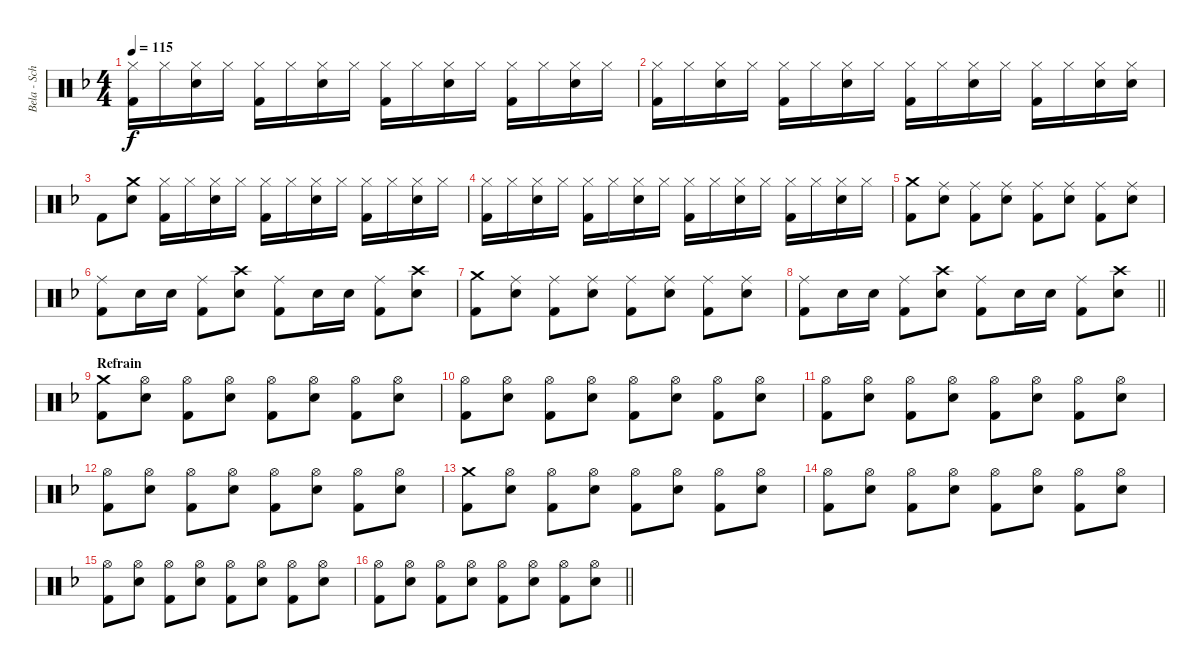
\track ("Bela - Schlagzeug" "Bela - Sch") {instrument percussion}
\staff {score}
\articulation defaults
\ts (4 4)
\tempo 115
\clef neutral
\ks f
("Hi-Hat (closed)" "Kick (hit) 2").16{dy f} "Hi-Hat (closed)".16 ("Hi-Hat (closed)" "Snare (hit) 2").16 "Hi-Hat (closed)".16 ("Hi-Hat (closed)" "Kick (hit) 2").16 "Hi-Hat (closed)".16 ("Hi-Hat (closed)" "Snare (hit) 2").16 "Hi-Hat (closed)".16 ("Hi-Hat (closed)" "Kick (hit) 2").16 "Hi-Hat (closed)".16 ("Hi-Hat (closed)" "Snare (hit) 2").16 "Hi-Hat (closed)".16 ("Hi-Hat (closed)" "Kick (hit) 2").16 "Hi-Hat (closed)".16 ("Hi-Hat (closed)" "Snare (hit) 2").16 "Hi-Hat (closed)".16 |
("Hi-Hat (closed)" "Kick (hit) 2").16 "Hi-Hat (closed)".16 ("Hi-Hat (closed)" "Snare (hit) 2").16 "Hi-Hat (closed)".16 ("Hi-Hat (closed)" "Kick (hit) 2").16 "Hi-Hat (closed)".16 ("Hi-Hat (closed)" "Snare (hit) 2").16 "Hi-Hat (closed)".16 ("Hi-Hat (closed)" "Kick (hit) 2").16 "Hi-Hat (closed)".16 ("Hi-Hat (closed)" "Snare (hit) 2").16 "Hi-Hat (closed)".16 ("Hi-Hat (closed)" "Kick (hit) 2").16 "Hi-Hat (closed)".16 ("Hi-Hat (closed)" "Snare (hit) 2").16 ("Hi-Hat (closed)" "Snare (hit) 2").16 |
"Kick (hit) 2".8 ("Crash medium (hit)" "Snare (hit) 2").8 ("Hi-Hat (closed)" "Kick (hit) 2").16 "Hi-Hat (closed)".16 ("Hi-Hat (closed)" "Snare (hit) 2").16 "Hi-Hat (closed)".16 ("Hi-Hat (closed)" "Kick (hit) 2").16 "Hi-Hat (closed)".16 ("Hi-Hat (closed)" "Snare (hit) 2").16 "Hi-Hat (closed)".16 ("Hi-Hat (closed)" "Kick (hit) 2").16 "Hi-Hat (closed)".16 ("Hi-Hat (closed)" "Snare (hit) 2").16 "Hi-Hat (closed)".16 |
("Hi-Hat (closed)" "Kick (hit) 2").16 "Hi-Hat (closed)".16 ("Hi-Hat (closed)" "Snare (hit) 2").16 "Hi-Hat (closed)".16 ("Hi-Hat (closed)" "Kick (hit) 2").16 "Hi-Hat (closed)".16 ("Hi-Hat (closed)" "Snare (hit) 2").16 "Hi-Hat (closed)".16 ("Hi-Hat (closed)" "Kick (hit) 2").16 "Hi-Hat (closed)".16 ("Hi-Hat (closed)" "Snare (hit) 2").16 "Hi-Hat (closed)".16 ("Hi-Hat (closed)" "Kick (hit) 2").16 "Hi-Hat (closed)".16 ("Hi-Hat (closed)" "Snare (hit) 2").16 "Hi-Hat (closed)".16 |
("Crash medium (hit)" "Kick (hit) 2").8 ("Ride (middle)" "Snare (hit) 2").8 ("Ride (middle)" "Kick (hit) 2").8 ("Ride (middle)" "Snare (hit) 2").8 ("Ride (middle)" "Kick (hit) 2").8 ("Ride (middle)" "Snare (hit) 2").8 ("Ride (middle)" "Kick (hit) 2").8 ("Ride (middle)" "Snare (hit) 2").8 |
("Ride (middle)" "Kick (hit) 2").8 "Snare (hit) 2".16 "Snare (hit) 2".16 ("Ride (middle)" "Kick (hit) 2").8 ("Crash high (hit)" "Snare (hit) 2").8 ("Ride (middle)" "Kick (hit) 2").8 "Snare (hit) 2".16 "Snare (hit) 2".16 ("Ride (middle)" "Kick (hit) 2").8 ("Crash high (hit)" "Snare (hit) 2").8 |
("Crash medium (hit)" "Kick (hit) 2").8 ("Ride (middle)" "Snare (hit) 2").8 ("Ride (middle)" "Kick (hit) 2").8 ("Ride (middle)" "Snare (hit) 2").8 ("Ride (middle)" "Kick (hit) 2").8 ("Ride (middle)" "Snare (hit) 2").8 ("Ride (middle)" "Kick (hit) 2").8 ("Ride (middle)" "Snare (hit) 2").8 |
\barLineRight lightlight
("Ride (middle)" "Kick (hit) 2").8 "Snare (hit) 2".16 "Snare (hit) 2".16 ("Ride (middle)" "Kick (hit) 2").8 ("Crash high (hit)" "Snare (hit) 2").8 ("Ride (middle)" "Kick (hit) 2").8 "Snare (hit) 2".16 "Snare (hit) 2".16 ("Ride (middle)" "Kick (hit) 2").8 ("Crash high (hit)" "Snare (hit) 2").8 |
\section ("" "Refrain")
("Crash medium (hit)" "Kick (hit) 2").8 ("Hi-Hat (open)" "Snare (hit) 2").8 ("Hi-Hat (open)" "Kick (hit) 2").8 ("Hi-Hat (open)" "Snare (hit) 2").8 ("Hi-Hat (open)" "Kick (hit) 2").8 ("Hi-Hat (open)" "Snare (hit) 2").8 ("Hi-Hat (open)" "Kick (hit) 2").8 ("Hi-Hat (open)" "Snare (hit) 2").8 |
("Hi-Hat (open)" "Kick (hit) 2").8 ("Hi-Hat (open)" "Snare (hit) 2").8 ("Hi-Hat (open)" "Kick (hit) 2").8 ("Hi-Hat (open)" "Snare (hit) 2").8 ("Hi-Hat (open)" "Kick (hit) 2").8 ("Hi-Hat (open)" "Snare (hit) 2").8 ("Hi-Hat (open)" "Kick (hit) 2").8 ("Hi-Hat (open)" "Snare (hit) 2").8 |
("Hi-Hat (open)" "Kick (hit) 2").8 ("Hi-Hat (open)" "Snare (hit) 2").8 ("Hi-Hat (open)" "Kick (hit) 2").8 ("Hi-Hat (open)" "Snare (hit) 2").8 ("Hi-Hat (open)" "Kick (hit) 2").8 ("Hi-Hat (open)" "Snare (hit) 2").8 ("Hi-Hat (open)" "Kick (hit) 2").8 ("Hi-Hat (open)" "Snare (hit) 2").8 |
("Hi-Hat (open)" "Kick (hit) 2").8 ("Hi-Hat (open)" "Snare (hit) 2").8 ("Hi-Hat (open)" "Kick (hit) 2").8 ("Hi-Hat (open)" "Snare (hit) 2").8 ("Hi-Hat (open)" "Kick (hit) 2").8 ("Hi-Hat (open)" "Snare (hit) 2").8 ("Hi-Hat (open)" "Kick (hit) 2").8 ("Hi-Hat (open)" "Snare (hit) 2").8 |
("Crash medium (hit)" "Kick (hit) 2").8 ("Hi-Hat (open)" "Snare (hit) 2").8 ("Hi-Hat (open)" "Kick (hit) 2").8 ("Hi-Hat (open)" "Snare (hit) 2").8 ("Hi-Hat (open)" "Kick (hit) 2").8 ("Hi-Hat (open)" "Snare (hit) 2").8 ("Hi-Hat (open)" "Kick (hit) 2").8 ("Hi-Hat (open)" "Snare (hit) 2").8 |
("Hi-Hat (open)" "Kick (hit) 2").8 ("Hi-Hat (open)" "Snare (hit) 2").8 ("Hi-Hat (open)" "Kick (hit) 2").8 ("Hi-Hat (open)" "Snare (hit) 2").8 ("Hi-Hat (open)" "Kick (hit) 2").8 ("Hi-Hat (open)" "Snare (hit) 2").8 ("Hi-Hat (open)" "Kick (hit) 2").8 ("Hi-Hat (open)" "Snare (hit) 2").8 |
("Hi-Hat (open)" "Kick (hit) 2").8 ("Hi-Hat (open)" "Snare (hit) 2").8 ("Hi-Hat (open)" "Kick (hit) 2").8 ("Hi-Hat (open)" "Snare (hit) 2").8 ("Hi-Hat (open)" "Kick (hit) 2").8 ("Hi-Hat (open)" "Snare (hit) 2").8 ("Hi-Hat (open)" "Kick (hit) 2").8 ("Hi-Hat (open)" "Snare (hit) 2").8 |
\barLineRight lightlight
("Hi-Hat (open)" "Kick (hit) 2").8 ("Hi-Hat (open)" "Snare (hit) 2").8 ("Hi-Hat (open)" "Kick (hit) 2").8 ("Hi-Hat (open)" "Snare (hit) 2").8 ("Hi-Hat (open)" "Kick (hit) 2").8 ("Hi-Hat (open)" "Snare (hit) 2").8 ("Hi-Hat (open)" "Kick (hit) 2").8 ("Hi-Hat (open)" "Snare (hit) 2").8
